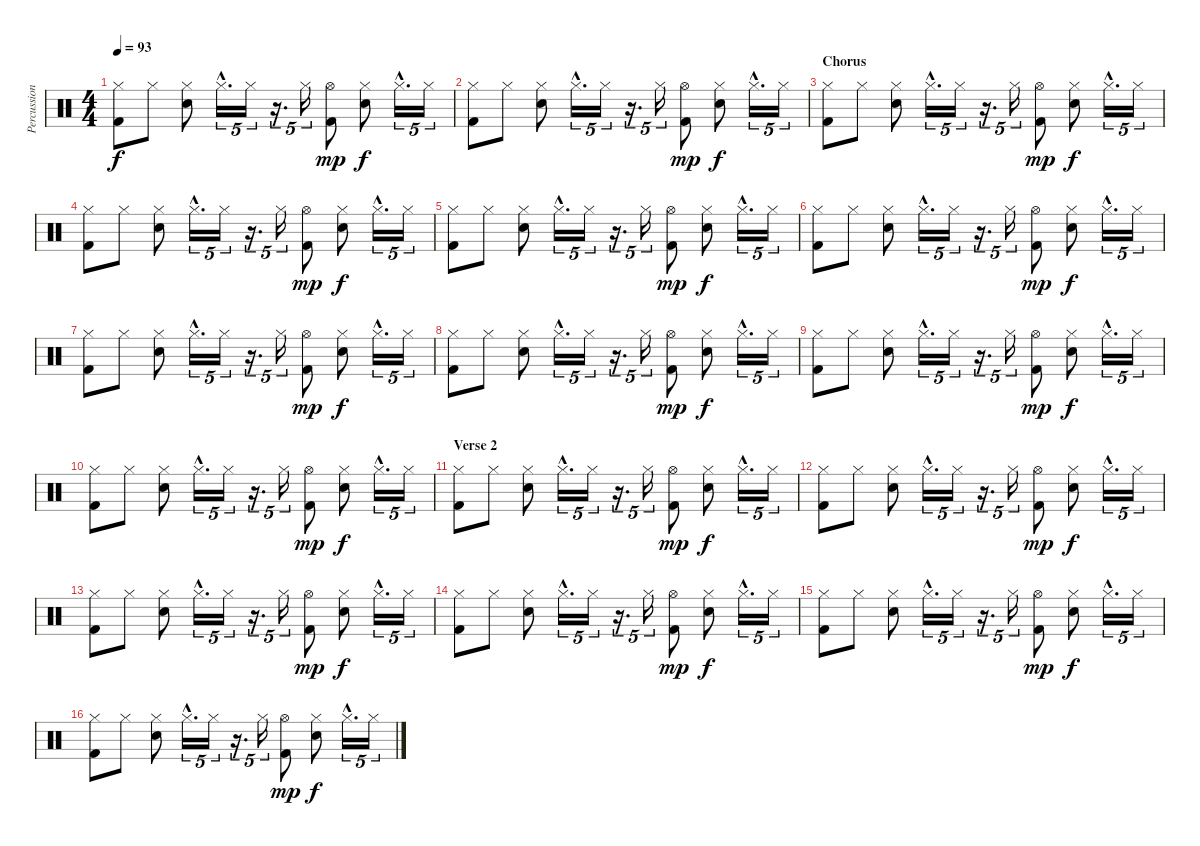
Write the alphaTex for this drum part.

\track ("Percussion" "Percussion") {instrument percussion}
\staff {score}
\articulation defaults
\ts (4 4)
\tempo 93
\clef neutral
\ks c
("Hi-Hat (closed)" "Kick (hit) 2").8{dy f} "Hi-Hat (closed)".8 ("Hi-Hat (closed)" "Snare (hit) 2").8 "Hi-Hat (closed)"{hac}.16{d tu (5 4)} "Hi-Hat (closed)".16{tu (5 4)} r.16{d tu (5 4)} "Hi-Hat (closed)".16{tu (5 4)} ("Hi-Hat (open)" "Kick (hit) 2").8{dy mp} ("Hi-Hat (closed)" "Snare (hit) 2").8{dy f} "Hi-Hat (closed)"{hac}.16{d tu (5 4)} "Hi-Hat (closed)".16{tu (5 4)} |
("Hi-Hat (closed)" "Kick (hit) 2").8 "Hi-Hat (closed)".8 ("Hi-Hat (closed)" "Snare (hit) 2").8 "Hi-Hat (closed)"{hac}.16{d tu (5 4)} "Hi-Hat (closed)".16{tu (5 4)} r.16{d tu (5 4)} "Hi-Hat (closed)".16{tu (5 4)} ("Hi-Hat (open)" "Kick (hit) 2").8{dy mp} ("Hi-Hat (closed)" "Snare (hit) 2").8{dy f} "Hi-Hat (closed)"{hac}.16{d tu (5 4)} "Hi-Hat (closed)".16{tu (5 4)} |
\section ("" "Chorus")
("Hi-Hat (closed)" "Kick (hit) 2").8 "Hi-Hat (closed)".8 ("Hi-Hat (closed)" "Snare (hit) 2").8 "Hi-Hat (closed)"{hac}.16{d tu (5 4)} "Hi-Hat (closed)".16{tu (5 4)} r.16{d tu (5 4)} "Hi-Hat (closed)".16{tu (5 4)} ("Hi-Hat (open)" "Kick (hit) 2").8{dy mp} ("Hi-Hat (closed)" "Snare (hit) 2").8{dy f} "Hi-Hat (closed)"{hac}.16{d tu (5 4)} "Hi-Hat (closed)".16{tu (5 4)} |
("Hi-Hat (closed)" "Kick (hit) 2").8 "Hi-Hat (closed)".8 ("Hi-Hat (closed)" "Snare (hit) 2").8 "Hi-Hat (closed)"{hac}.16{d tu (5 4)} "Hi-Hat (closed)".16{tu (5 4)} r.16{d tu (5 4)} "Hi-Hat (closed)".16{tu (5 4)} ("Hi-Hat (open)" "Kick (hit) 2").8{dy mp} ("Hi-Hat (closed)" "Snare (hit) 2").8{dy f} "Hi-Hat (closed)"{hac}.16{d tu (5 4)} "Hi-Hat (closed)".16{tu (5 4)} |
("Hi-Hat (closed)" "Kick (hit) 2").8 "Hi-Hat (closed)".8 ("Hi-Hat (closed)" "Snare (hit) 2").8 "Hi-Hat (closed)"{hac}.16{d tu (5 4)} "Hi-Hat (closed)".16{tu (5 4)} r.16{d tu (5 4)} "Hi-Hat (closed)".16{tu (5 4)} ("Hi-Hat (open)" "Kick (hit) 2").8{dy mp} ("Hi-Hat (closed)" "Snare (hit) 2").8{dy f} "Hi-Hat (closed)"{hac}.16{d tu (5 4)} "Hi-Hat (closed)".16{tu (5 4)} |
("Hi-Hat (closed)" "Kick (hit) 2").8 "Hi-Hat (closed)".8 ("Hi-Hat (closed)" "Snare (hit) 2").8 "Hi-Hat (closed)"{hac}.16{d tu (5 4)} "Hi-Hat (closed)".16{tu (5 4)} r.16{d tu (5 4)} "Hi-Hat (closed)".16{tu (5 4)} ("Hi-Hat (open)" "Kick (hit) 2").8{dy mp} ("Hi-Hat (closed)" "Snare (hit) 2").8{dy f} "Hi-Hat (closed)"{hac}.16{d tu (5 4)} "Hi-Hat (closed)".16{tu (5 4)} |
("Hi-Hat (closed)" "Kick (hit) 2").8 "Hi-Hat (closed)".8 ("Hi-Hat (closed)" "Snare (hit) 2").8 "Hi-Hat (closed)"{hac}.16{d tu (5 4)} "Hi-Hat (closed)".16{tu (5 4)} r.16{d tu (5 4)} "Hi-Hat (closed)".16{tu (5 4)} ("Hi-Hat (open)" "Kick (hit) 2").8{dy mp} ("Hi-Hat (closed)" "Snare (hit) 2").8{dy f} "Hi-Hat (closed)"{hac}.16{d tu (5 4)} "Hi-Hat (closed)".16{tu (5 4)} |
("Hi-Hat (closed)" "Kick (hit) 2").8 "Hi-Hat (closed)".8 ("Hi-Hat (closed)" "Snare (hit) 2").8 "Hi-Hat (closed)"{hac}.16{d tu (5 4)} "Hi-Hat (closed)".16{tu (5 4)} r.16{d tu (5 4)} "Hi-Hat (closed)".16{tu (5 4)} ("Hi-Hat (open)" "Kick (hit) 2").8{dy mp} ("Hi-Hat (closed)" "Snare (hit) 2").8{dy f} "Hi-Hat (closed)"{hac}.16{d tu (5 4)} "Hi-Hat (closed)".16{tu (5 4)} |
("Hi-Hat (closed)" "Kick (hit) 2").8 "Hi-Hat (closed)".8 ("Hi-Hat (closed)" "Snare (hit) 2").8 "Hi-Hat (closed)"{hac}.16{d tu (5 4)} "Hi-Hat (closed)".16{tu (5 4)} r.16{d tu (5 4)} "Hi-Hat (closed)".16{tu (5 4)} ("Hi-Hat (open)" "Kick (hit) 2").8{dy mp} ("Hi-Hat (closed)" "Snare (hit) 2").8{dy f} "Hi-Hat (closed)"{hac}.16{d tu (5 4)} "Hi-Hat (closed)".16{tu (5 4)} |
("Hi-Hat (closed)" "Kick (hit) 2").8 "Hi-Hat (closed)".8 ("Hi-Hat (closed)" "Snare (hit) 2").8 "Hi-Hat (closed)"{hac}.16{d tu (5 4)} "Hi-Hat (closed)".16{tu (5 4)} r.16{d tu (5 4)} "Hi-Hat (closed)".16{tu (5 4)} ("Hi-Hat (open)" "Kick (hit) 2").8{dy mp} ("Hi-Hat (closed)" "Snare (hit) 2").8{dy f} "Hi-Hat (closed)"{hac}.16{d tu (5 4)} "Hi-Hat (closed)".16{tu (5 4)} |
\section ("" "Verse 2")
("Hi-Hat (closed)" "Kick (hit) 2").8 "Hi-Hat (closed)".8 ("Hi-Hat (closed)" "Snare (hit) 2").8 "Hi-Hat (closed)"{hac}.16{d tu (5 4)} "Hi-Hat (closed)".16{tu (5 4)} r.16{d tu (5 4)} "Hi-Hat (closed)".16{tu (5 4)} ("Hi-Hat (open)" "Kick (hit) 2").8{dy mp} ("Hi-Hat (closed)" "Snare (hit) 2").8{dy f} "Hi-Hat (closed)"{hac}.16{d tu (5 4)} "Hi-Hat (closed)".16{tu (5 4)} |
("Hi-Hat (closed)" "Kick (hit) 2").8 "Hi-Hat (closed)".8 ("Hi-Hat (closed)" "Snare (hit) 2").8 "Hi-Hat (closed)"{hac}.16{d tu (5 4)} "Hi-Hat (closed)".16{tu (5 4)} r.16{d tu (5 4)} "Hi-Hat (closed)".16{tu (5 4)} ("Hi-Hat (open)" "Kick (hit) 2").8{dy mp} ("Hi-Hat (closed)" "Snare (hit) 2").8{dy f} "Hi-Hat (closed)"{hac}.16{d tu (5 4)} "Hi-Hat (closed)".16{tu (5 4)} |
("Hi-Hat (closed)" "Kick (hit) 2").8 "Hi-Hat (closed)".8 ("Hi-Hat (closed)" "Snare (hit) 2").8 "Hi-Hat (closed)"{hac}.16{d tu (5 4)} "Hi-Hat (closed)".16{tu (5 4)} r.16{d tu (5 4)} "Hi-Hat (closed)".16{tu (5 4)} ("Hi-Hat (open)" "Kick (hit) 2").8{dy mp} ("Hi-Hat (closed)" "Snare (hit) 2").8{dy f} "Hi-Hat (closed)"{hac}.16{d tu (5 4)} "Hi-Hat (closed)".16{tu (5 4)} |
("Hi-Hat (closed)" "Kick (hit) 2").8 "Hi-Hat (closed)".8 ("Hi-Hat (closed)" "Snare (hit) 2").8 "Hi-Hat (closed)"{hac}.16{d tu (5 4)} "Hi-Hat (closed)".16{tu (5 4)} r.16{d tu (5 4)} "Hi-Hat (closed)".16{tu (5 4)} ("Hi-Hat (open)" "Kick (hit) 2").8{dy mp} ("Hi-Hat (closed)" "Snare (hit) 2").8{dy f} "Hi-Hat (closed)"{hac}.16{d tu (5 4)} "Hi-Hat (closed)".16{tu (5 4)} |
("Hi-Hat (closed)" "Kick (hit) 2").8 "Hi-Hat (closed)".8 ("Hi-Hat (closed)" "Snare (hit) 2").8 "Hi-Hat (closed)"{hac}.16{d tu (5 4)} "Hi-Hat (closed)".16{tu (5 4)} r.16{d tu (5 4)} "Hi-Hat (closed)".16{tu (5 4)} ("Hi-Hat (open)" "Kick (hit) 2").8{dy mp} ("Hi-Hat (closed)" "Snare (hit) 2").8{dy f} "Hi-Hat (closed)"{hac}.16{d tu (5 4)} "Hi-Hat (closed)".16{tu (5 4)} |
("Hi-Hat (closed)" "Kick (hit) 2").8 "Hi-Hat (closed)".8 ("Hi-Hat (closed)" "Snare (hit) 2").8 "Hi-Hat (closed)"{hac}.16{d tu (5 4)} "Hi-Hat (closed)".16{tu (5 4)} r.16{d tu (5 4)} "Hi-Hat (closed)".16{tu (5 4)} ("Hi-Hat (open)" "Kick (hit) 2").8{dy mp} ("Hi-Hat (closed)" "Snare (hit) 2").8{dy f} "Hi-Hat (closed)"{hac}.16{d tu (5 4)} "Hi-Hat (closed)".16{tu (5 4)}
